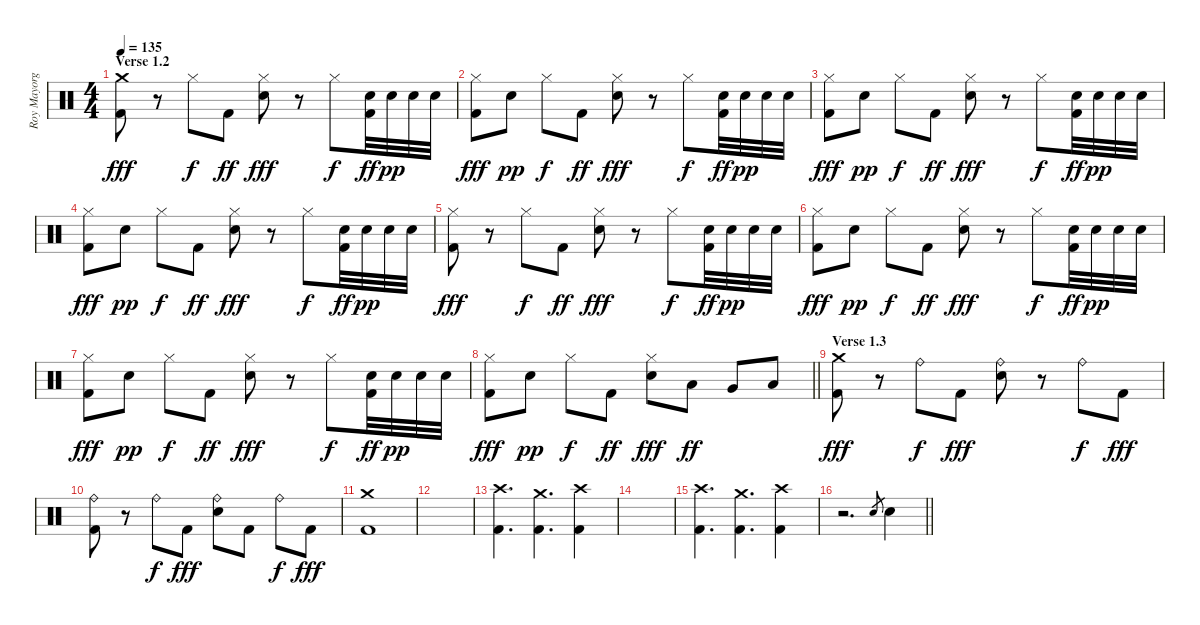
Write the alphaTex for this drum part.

\track ("Roy Mayorga" "Roy Mayorg") {instrument percussion}
\staff {score}
\articulation defaults
\ts (4 4)
\section ("" "Verse 1.2")
\tempo 135
\clef neutral
\ks c
("Crash medium (hit)" "Kick (hit) 2").8{dy fff} r.8 "Hi-Hat (closed)".8{dy f} "Kick (hit) 2".8{dy ff} ("Hi-Hat (closed)" "Electric Snare (hit)").8{dy fff} r.8 "Hi-Hat (closed)".8{dy f} ("Electric Snare (hit)" "Kick (hit) 2").32{dy ff} "Electric Snare (hit)".32{dy pp} "Electric Snare (hit)".32 "Electric Snare (hit)".32 |
("Hi-Hat (closed)" "Kick (hit) 2").8{dy fff} "Electric Snare (hit)".8{dy pp} "Hi-Hat (closed)".8{dy f} "Kick (hit) 2".8{dy ff} ("Hi-Hat (closed)" "Electric Snare (hit)").8{dy fff} r.8 "Hi-Hat (closed)".8{dy f} ("Electric Snare (hit)" "Kick (hit) 2").32{dy ff} "Electric Snare (hit)".32{dy pp} "Electric Snare (hit)".32 "Electric Snare (hit)".32 |
("Hi-Hat (closed)" "Kick (hit) 2").8{dy fff} "Electric Snare (hit)".8{dy pp} "Hi-Hat (closed)".8{dy f} "Kick (hit) 2".8{dy ff} ("Hi-Hat (closed)" "Electric Snare (hit)").8{dy fff} r.8 "Hi-Hat (closed)".8{dy f} ("Electric Snare (hit)" "Kick (hit) 2").32{dy ff} "Electric Snare (hit)".32{dy pp} "Electric Snare (hit)".32 "Electric Snare (hit)".32 |
("Hi-Hat (closed)" "Kick (hit) 2").8{dy fff} "Electric Snare (hit)".8{dy pp} "Hi-Hat (closed)".8{dy f} "Kick (hit) 2".8{dy ff} ("Hi-Hat (closed)" "Electric Snare (hit)").8{dy fff} r.8 "Hi-Hat (closed)".8{dy f} ("Electric Snare (hit)" "Kick (hit) 2").32{dy ff} "Electric Snare (hit)".32{dy pp} "Electric Snare (hit)".32 "Electric Snare (hit)".32 |
("Hi-Hat (closed)" "Kick (hit) 2").8{dy fff} r.8 "Hi-Hat (closed)".8{dy f} "Kick (hit) 2".8{dy ff} ("Hi-Hat (closed)" "Electric Snare (hit)").8{dy fff} r.8 "Hi-Hat (closed)".8{dy f} ("Electric Snare (hit)" "Kick (hit) 2").32{dy ff} "Electric Snare (hit)".32{dy pp} "Electric Snare (hit)".32 "Electric Snare (hit)".32 |
("Hi-Hat (closed)" "Kick (hit) 2").8{dy fff} "Electric Snare (hit)".8{dy pp} "Hi-Hat (closed)".8{dy f} "Kick (hit) 2".8{dy ff} ("Hi-Hat (closed)" "Electric Snare (hit)").8{dy fff} r.8 "Hi-Hat (closed)".8{dy f} ("Electric Snare (hit)" "Kick (hit) 2").32{dy ff} "Electric Snare (hit)".32{dy pp} "Electric Snare (hit)".32 "Electric Snare (hit)".32 |
("Hi-Hat (closed)" "Kick (hit) 2").8{dy fff} "Electric Snare (hit)".8{dy pp} "Hi-Hat (closed)".8{dy f} "Kick (hit) 2".8{dy ff} ("Hi-Hat (closed)" "Electric Snare (hit)").8{dy fff} r.8 "Hi-Hat (closed)".8{dy f} ("Electric Snare (hit)" "Kick (hit) 2").32{dy ff} "Electric Snare (hit)".32{dy pp} "Electric Snare (hit)".32 "Electric Snare (hit)".32 |
\barLineRight lightlight
("Hi-Hat (closed)" "Kick (hit) 2").8{dy fff} "Electric Snare (hit)".8{dy pp} "Hi-Hat (closed)".8{dy f} "Kick (hit) 2".8{dy ff} ("Hi-Hat (closed)" "Electric Snare (hit)").8{dy fff} "Low Tom (hit)".8{dy ff} "Very Low Tom (hit)".8 "Low Floor Tom (hit)".8 |
\section ("" "Verse 1.3")
("Crash medium (hit)" "Kick (hit) 2").8{dy fff} r.8 "Ride (bell)".8{dy f} "Kick (hit) 2".8{dy fff} ("Ride (bell)" "Electric Snare (hit)").8 r.8 "Ride (bell)".8{dy f} "Kick (hit) 2".8{dy fff} |
("Ride (bell)" "Kick (hit) 2").8 r.8 "Ride (bell)".8{dy f} "Kick (hit) 2".8{dy fff} ("Ride (bell)" "Electric Snare (hit)").8 "Kick (hit) 2".8 "Ride (bell)".8{dy f} "Kick (hit) 2".8{dy fff} |
("Crash medium (hit)" "Kick (hit) 2").1 |
|
("Crash high (hit)" "Kick (hit) 2").4{d} ("Crash medium (hit)" "Kick (hit) 2").4{d} ("Crash high (hit)" "Kick (hit) 2").4 |
|
("Crash high (hit)" "Kick (hit) 2").4{d} ("Crash medium (hit)" "Kick (hit) 2").4{d} ("Crash high (hit)" "Kick (hit) 2").4 |
\barLineRight lightlight
r.2{d} "Electric Snare (hit)".8{gr} "Electric Snare (hit)".4
